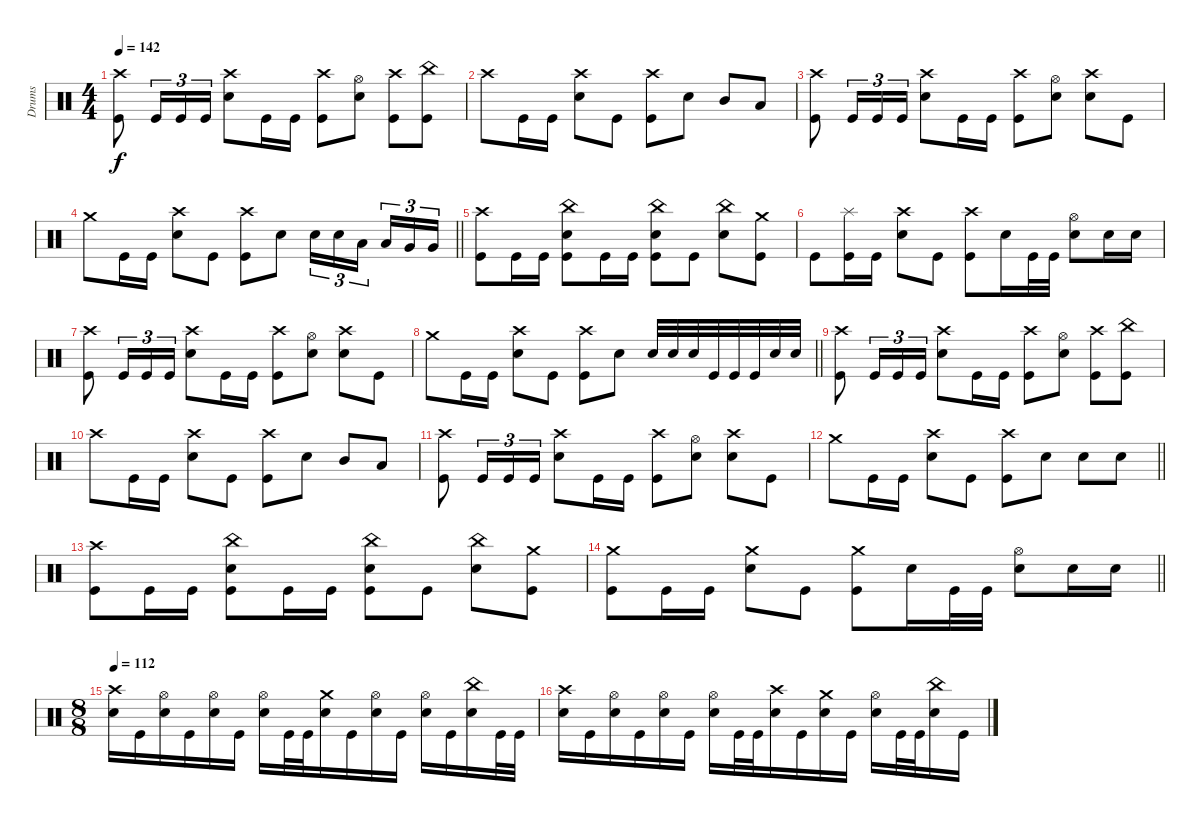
\track ("Drums" "Drums") {instrument percussion}
\staff
\articulation defaults
\ts (4 4)
\section ("" "")
\tempo 142
\clef neutral
\ks c
("Crash high (hit)" "Kick (hit)").8{dy f} "Kick (hit)".16{tu (3 2)} "Kick (hit)".16{tu (3 2)} "Kick (hit)".16{tu (3 2)} ("Crash high (hit)" "Electric Snare (hit)").8 "Kick (hit)".16 "Kick (hit)".16 ("Crash high (hit)" "Kick (hit)").8 ("Hi-Hat (open)" "Electric Snare (hit)").8 ("Crash high (hit)" "Kick (hit)").8 ("China (hit)" "Kick (hit)").8 |
"Crash high (hit)".8 "Kick (hit)".16 "Kick (hit)".16 ("Crash high (hit)" "Electric Snare (hit)").8 "Kick (hit)".8 ("Crash high (hit)" "Kick (hit)").8 "Electric Snare (hit)".8 "Mid Tom (hit)".8 "Low Tom (hit)".8 |
("Crash high (hit)" "Kick (hit)").8 "Kick (hit)".16{tu (3 2)} "Kick (hit)".16{tu (3 2)} "Kick (hit)".16{tu (3 2)} ("Crash high (hit)" "Electric Snare (hit)").8 "Kick (hit)".16 "Kick (hit)".16 ("Crash high (hit)" "Kick (hit)").8 ("Hi-Hat (open)" "Electric Snare (hit)").8 ("Crash high (hit)" "Electric Snare (hit)").8 "Kick (hit)".8 |
\barLineRight lightlight "Crash medium (hit)".8 "Kick (hit)".16 "Kick (hit)".16
("Crash high (hit)" "Electric Snare (hit)").8 "Kick (hit)".8 ("Crash high (hit)" "Kick (hit)").8 "Electric Snare (hit)".8 "Electric Snare (hit)".16{tu (3 2)} "Electric Snare (hit)".16{tu (3 2)} "Low Tom (hit)".16{tu (3 2) beam splitsecondary} "Low Tom (hit)".16{tu (3 2)} "Very Low Tom (hit)".16{tu (3 2)} "Very Low Tom (hit)".16{tu (3 2)} |
("Crash high (hit)" "Kick (hit)").8 "Kick (hit)".16 "Kick (hit)".16 ("China (hit)" "Electric Snare (hit)" "Kick (hit)").8 "Kick (hit)".16 "Kick (hit)".16 ("China (hit)" "Electric Snare (hit)" "Kick (hit)").8 "Kick (hit)".8 ("China (hit)" "Electric Snare (hit)").8 ("Crash medium (hit)" "Kick (hit)").8 |
"Kick (hit)".8 ("Splash (hit)" "Kick (hit)").16 "Kick (hit)".16 ("Crash high (hit)" "Electric Snare (hit)").8 "Kick (hit)".8 ("Crash high (hit)" "Kick (hit)").8 "Electric Snare (hit)".16 "Kick (hit)".32 "Kick (hit)".32 ("Hi-Hat (open)" "Electric Snare (hit)").8 "Electric Snare (hit)".16 "Electric Snare (hit)".16 |
("Crash high (hit)" "Kick (hit)").8 "Kick (hit)".16{tu (3 2)} "Kick (hit)".16{tu (3 2)} "Kick (hit)".16{tu (3 2)} ("Crash high (hit)" "Electric Snare (hit)").8 "Kick (hit)".16 "Kick (hit)".16 ("Crash high (hit)" "Kick (hit)").8 ("Hi-Hat (open)" "Electric Snare (hit)").8 ("Crash high (hit)" "Electric Snare (hit)").8 "Kick (hit)".8 |
\barLineRight lightlight "Crash medium (hit)".8 "Kick (hit)".16 "Kick (hit)".16
("Crash high (hit)" "Electric Snare (hit)").8 "Kick (hit)".8 ("Crash high (hit)" "Kick (hit)").8 "Electric Snare (hit)".8 "Electric Snare (hit)".32 "Electric Snare (hit)".32 "Electric Snare (hit)".32 "Kick (hit)".32 "Kick (hit)".32 "Kick (hit)".32 "Electric Snare (hit)".32 "Electric Snare (hit)".32 |
("Crash high (hit)" "Kick (hit)").8 "Kick (hit)".16{tu (3 2)} "Kick (hit)".16{tu (3 2)} "Kick (hit)".16{tu (3 2)} ("Crash high (hit)" "Electric Snare (hit)").8 "Kick (hit)".16 "Kick (hit)".16 ("Crash high (hit)" "Kick (hit)").8 ("Hi-Hat (open)" "Electric Snare (hit)").8 ("Crash high (hit)" "Kick (hit)").8 ("China (hit)" "Kick (hit)").8 |
"Crash high (hit)".8 "Kick (hit)".16 "Kick (hit)".16 ("Crash high (hit)" "Electric Snare (hit)").8 "Kick (hit)".8 ("Crash high (hit)" "Kick (hit)").8 "Electric Snare (hit)".8 "Mid Tom (hit)".8 "Low Tom (hit)".8 |
("Crash high (hit)" "Kick (hit)").8 "Kick (hit)".16{tu (3 2)} "Kick (hit)".16{tu (3 2)} "Kick (hit)".16{tu (3 2)} ("Crash high (hit)" "Electric Snare (hit)").8 "Kick (hit)".16 "Kick (hit)".16 ("Crash high (hit)" "Kick (hit)").8 ("Hi-Hat (open)" "Electric Snare (hit)").8 ("Crash high (hit)" "Electric Snare (hit)").8 "Kick (hit)".8 |
\barLineRight lightlight "Crash medium (hit)".8 "Kick (hit)".16 "Kick (hit)".16
("Crash high (hit)" "Electric Snare (hit)").8 "Kick (hit)".8 ("Crash high (hit)" "Kick (hit)").8 "Electric Snare (hit)".8 "Electric Snare (hit)".8 "Electric Snare (hit)".8 |
("Crash high (hit)" "Kick (hit)").8 "Kick (hit)".16 "Kick (hit)".16 ("China (hit)" "Electric Snare (hit)" "Kick (hit)").8 "Kick (hit)".16 "Kick (hit)".16 ("China (hit)" "Electric Snare (hit)" "Kick (hit)").8 "Kick (hit)".8 ("China (hit)" "Electric Snare (hit)").8 ("Crash medium (hit)" "Kick (hit)").8 |
\barLineRight lightlight
("Crash medium (hit)" "Kick (hit)").8 "Kick (hit)".16 "Kick (hit)".16 ("Crash medium (hit)" "Electric Snare (hit)").8 "Kick (hit)".8 ("Crash medium (hit)" "Kick (hit)").8 "Electric Snare (hit)".16 "Kick (hit)".32 "Kick (hit)".32 ("Hi-Hat (open)" "Electric Snare (hit)").8 "Electric Snare (hit)".16 "Electric Snare (hit)".16 |
\ts (8 8)
\section ("" "")
\tempo 112
("Crash high (hit)" "Electric Snare (hit)").16 "Kick (hit)".16 ("Hi-Hat (open)" "Electric Snare (hit)").16 "Kick (hit)".16 ("Hi-Hat (open)" "Electric Snare (hit)").16 "Kick (hit)".16 ("Hi-Hat (open)" "Electric Snare (hit)").16 "Kick (hit)".32 "Kick (hit)".32 ("Crash medium (hit)" "Electric Snare (hit)").16 "Kick (hit)".16 ("Hi-Hat (open)" "Electric Snare (hit)").16 "Kick (hit)".16 ("Hi-Hat (open)" "Electric Snare (hit)").16 "Kick (hit)".16 ("China (hit)" "Electric Snare (hit)").16 "Kick (hit)".32 "Kick (hit)".32 |
("Crash high (hit)" "Electric Snare (hit)").16 "Kick (hit)".16 ("Hi-Hat (open)" "Electric Snare (hit)").16 "Kick (hit)".16 ("Hi-Hat (open)" "Electric Snare (hit)").16 "Kick (hit)".16 ("Hi-Hat (open)" "Electric Snare (hit)").16 "Kick (hit)".32 "Kick (hit)".32 ("Crash high (hit)" "Electric Snare (hit)").16 "Kick (hit)".16 ("Crash medium (hit)" "Electric Snare (hit)").16 "Kick (hit)".16 ("Hi-Hat (open)" "Electric Snare (hit)").16 "Kick (hit)".32 "Kick (hit)".32 ("China (hit)" "Electric Snare (hit)").16 "Kick (hit)".16
